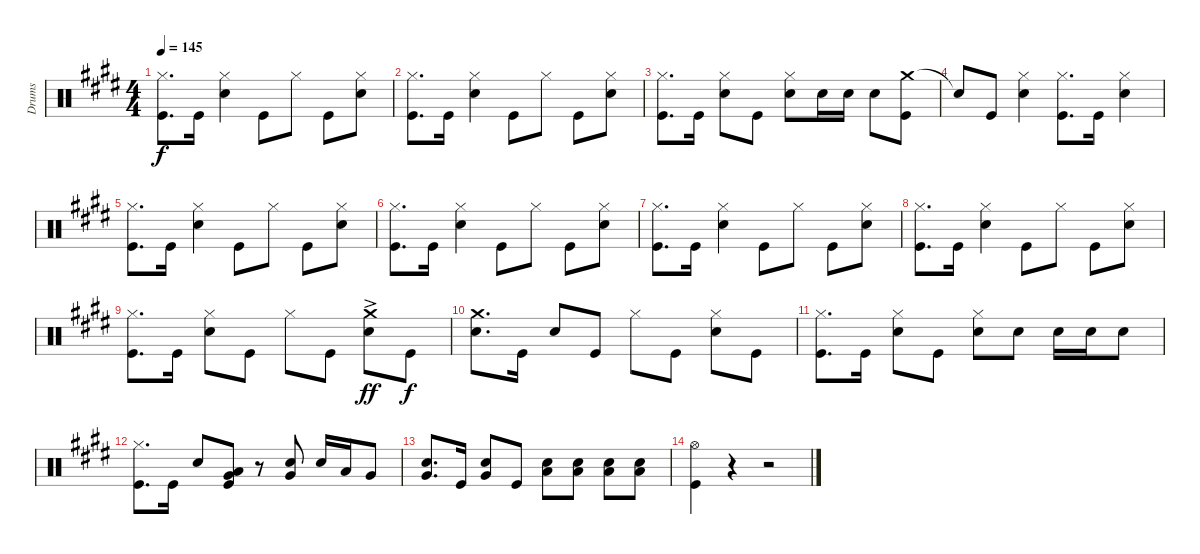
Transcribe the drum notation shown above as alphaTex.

\track ("Drums" "Drums") {instrument percussion}
\staff {score}
\articulation defaults
\ts (4 4)
\tempo 145
\clef neutral
\ks e
("Hi-Hat (closed)" "Kick (hit)").8{d dy f} "Kick (hit)".16 ("Hi-Hat (closed)" "Snare (hit) 2").4 "Kick (hit)".8 "Hi-Hat (closed)".8 "Kick (hit)".8 ("Hi-Hat (closed)" "Snare (hit) 2").8 |
("Hi-Hat (closed)" "Kick (hit)").8{d} "Kick (hit)".16 ("Hi-Hat (closed)" "Snare (hit) 2").4 "Kick (hit)".8 "Hi-Hat (closed)".8 "Kick (hit)".8 ("Hi-Hat (closed)" "Snare (hit) 2").8 |
("Hi-Hat (closed)" "Kick (hit)").8{d} "Kick (hit)".16 ("Hi-Hat (closed)" "Snare (hit) 2").8 "Kick (hit)".8 ("Hi-Hat (closed)" "Snare (hit) 2").8 "Snare (hit) 2".16 "Snare (hit) 2".16 "Snare (hit) 2".8 ("Crash medium (hit)" "Kick (hit)").8 |
"Snare (hit)"{t}.8 "Kick (hit)".8 ("Hi-Hat (closed)" "Snare (hit) 2").4 ("Hi-Hat (closed)" "Kick (hit)").8{d} "Kick (hit)".16 ("Hi-Hat (closed)" "Snare (hit) 2").4 |
("Hi-Hat (closed)" "Kick (hit)").8{d} "Kick (hit)".16 ("Hi-Hat (closed)" "Snare (hit) 2").4 "Kick (hit)".8 "Hi-Hat (closed)".8 "Kick (hit)".8 ("Hi-Hat (closed)" "Snare (hit) 2").8 |
("Hi-Hat (closed)" "Kick (hit)").8{d} "Kick (hit)".16 ("Hi-Hat (closed)" "Snare (hit) 2").4 "Kick (hit)".8 "Hi-Hat (closed)".8 "Kick (hit)".8 ("Hi-Hat (closed)" "Snare (hit) 2").8 |
("Hi-Hat (closed)" "Kick (hit)").8{d} "Kick (hit)".16 ("Hi-Hat (closed)" "Snare (hit) 2").4 "Kick (hit)".8 "Hi-Hat (closed)".8 "Kick (hit)".8 ("Hi-Hat (closed)" "Snare (hit) 2").8 |
("Hi-Hat (closed)" "Kick (hit)").8{d} "Kick (hit)".16 ("Hi-Hat (closed)" "Snare (hit) 2").4 "Kick (hit)".8 "Hi-Hat (closed)".8 "Kick (hit)".8 ("Hi-Hat (closed)" "Snare (hit) 2").8 |
("Hi-Hat (closed)" "Kick (hit)").8{d} "Kick (hit)".16 ("Hi-Hat (closed)" "Snare (hit) 2").8 "Kick (hit)".8 "Hi-Hat (closed)".8 "Kick (hit)".8 ("Crash medium (hit)"{ac} "Snare (hit) 2").8{dy ff} "Kick (hit)".8{dy f} |
("Crash medium (hit)" "Snare (hit) 2").8{d} "Kick (hit)".16 "Snare (hit) 2".8 "Kick (hit)".8 "Hi-Hat (closed)".8 "Kick (hit)".8 ("Hi-Hat (closed)" "Snare (hit) 2").8 "Kick (hit)".8 |
("Hi-Hat (closed)" "Kick (hit)").8{d} "Kick (hit)".16 ("Hi-Hat (closed)" "Snare (hit) 2").8 "Kick (hit)".8 ("Hi-Hat (closed)" "Snare (hit) 2").8 "Snare (hit) 2".8 "Snare (hit) 2".16 "Snare (hit) 2".16 "Snare (hit) 2".8 |
("Hi-Hat (closed)" "Kick (hit)").8{d} "Kick (hit)".16 "Snare (hit) 2".8 ("Low Tom (hit)" "Very Low Tom (hit)" "Kick (hit)").8 r.8 ("Snare (hit) 2" "Very Low Tom (hit)").8 "Snare (hit) 2".16 "Low Tom (hit)".16 "Very Low Tom (hit)".8 |
("Snare (hit) 2" "Very Low Tom (hit)").8{d} "Kick (hit)".16 ("Snare (hit) 2" "Very Low Tom (hit)").8 "Kick (hit)".8 ("Snare (hit) 2" "Low Tom (hit)").8 ("Snare (hit) 2" "Low Tom (hit)").8 ("Snare (hit) 2" "Low Tom (hit)").8 ("Snare (hit) 2" "Low Tom (hit)").8 |
("Hi-Hat (open)" "Kick (hit)").4 r.4 r.2
